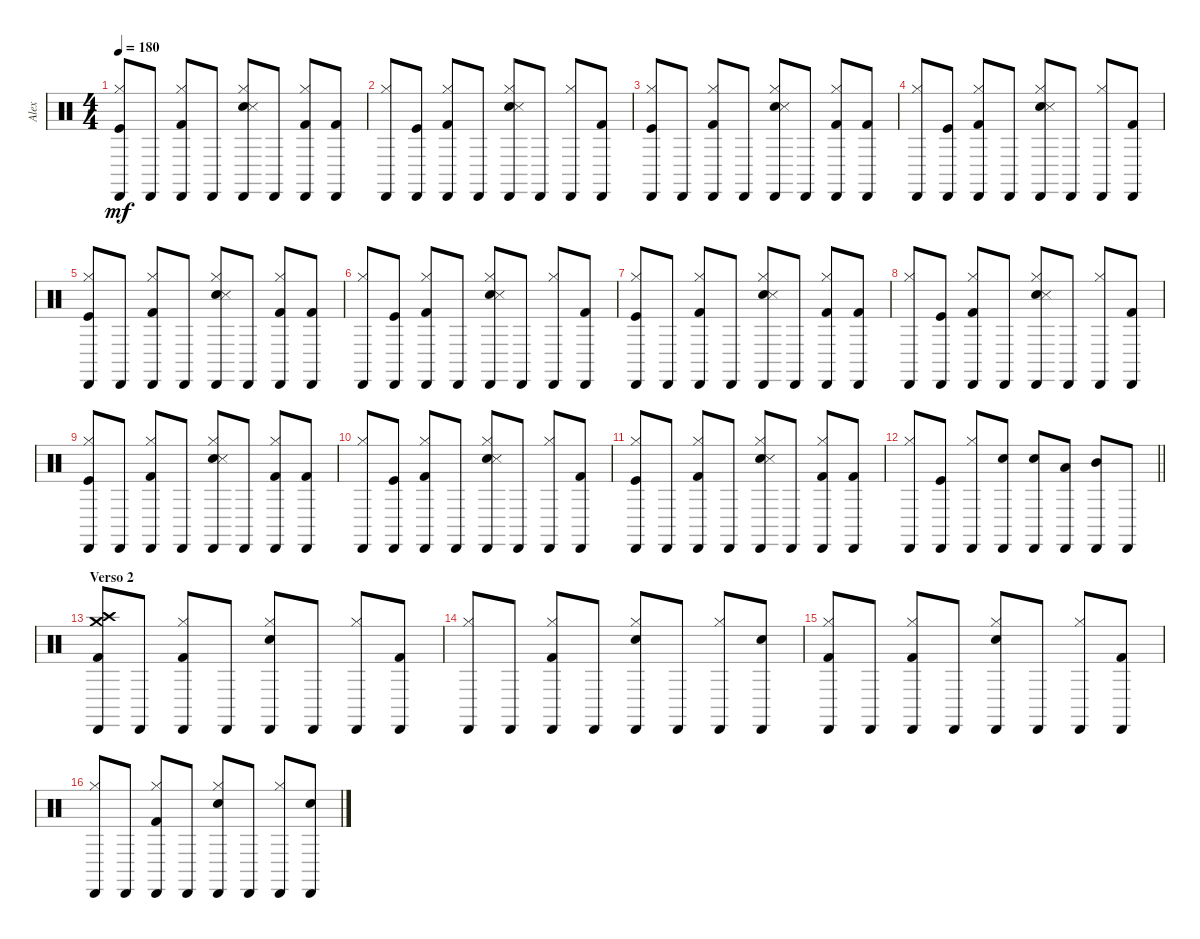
\track ("Alex" "Alex") {instrument percussion}
\staff {score}
\articulation defaults
\ts (4 4)
\tempo 180
\clef neutral
\ks c
("Hi-Hat (closed)" "Kick (hit)" "Cabasa (hit)").8{dy mf} "Cabasa (hit)".8 ("Hi-Hat (closed)" "Kick (hit) 2" "Cabasa (hit)").8 "Cabasa (hit)".8 ("Hi-Hat (closed)" "Hand Clap (hit)" "Snare (side stick) 3" "Cabasa (hit)").8 "Cabasa (hit)".8 ("Hi-Hat (closed)" "Kick (hit) 2" "Cabasa (hit)").8 ("Kick (hit) 2" "Cabasa (hit)").8 |
("Hi-Hat (closed)" "Cabasa (hit)").8 ("Kick (hit)" "Cabasa (hit)").8 ("Hi-Hat (closed)" "Kick (hit) 2" "Cabasa (hit)").8 "Cabasa (hit)".8 ("Hi-Hat (closed)" "Hand Clap (hit)" "Snare (side stick) 3" "Cabasa (hit)").8 "Cabasa (hit)".8 ("Hi-Hat (closed)" "Cabasa (hit)").8 ("Kick (hit) 2" "Cabasa (hit)").8 |
("Hi-Hat (closed)" "Kick (hit)" "Cabasa (hit)").8 "Cabasa (hit)".8 ("Hi-Hat (closed)" "Kick (hit) 2" "Cabasa (hit)").8 "Cabasa (hit)".8 ("Hi-Hat (closed)" "Hand Clap (hit)" "Snare (side stick) 3" "Cabasa (hit)").8 "Cabasa (hit)".8 ("Hi-Hat (closed)" "Kick (hit) 2" "Cabasa (hit)").8 ("Kick (hit) 2" "Cabasa (hit)").8 |
("Hi-Hat (closed)" "Cabasa (hit)").8 ("Kick (hit)" "Cabasa (hit)").8 ("Hi-Hat (closed)" "Kick (hit) 2" "Cabasa (hit)").8 "Cabasa (hit)".8 ("Hi-Hat (closed)" "Hand Clap (hit)" "Snare (side stick) 3" "Cabasa (hit)").8 "Cabasa (hit)".8 ("Hi-Hat (closed)" "Cabasa (hit)").8 ("Kick (hit) 2" "Cabasa (hit)").8 |
("Hi-Hat (closed)" "Kick (hit)" "Cabasa (hit)").8 "Cabasa (hit)".8 ("Hi-Hat (closed)" "Kick (hit) 2" "Cabasa (hit)").8 "Cabasa (hit)".8 ("Hi-Hat (closed)" "Hand Clap (hit)" "Snare (side stick) 3" "Cabasa (hit)").8 "Cabasa (hit)".8 ("Hi-Hat (closed)" "Kick (hit) 2" "Cabasa (hit)").8 ("Kick (hit) 2" "Cabasa (hit)").8 |
("Hi-Hat (closed)" "Cabasa (hit)").8 ("Kick (hit)" "Cabasa (hit)").8 ("Hi-Hat (closed)" "Kick (hit) 2" "Cabasa (hit)").8 "Cabasa (hit)".8 ("Hi-Hat (closed)" "Hand Clap (hit)" "Snare (side stick) 3" "Cabasa (hit)").8 "Cabasa (hit)".8 ("Hi-Hat (closed)" "Cabasa (hit)").8 ("Kick (hit) 2" "Cabasa (hit)").8 |
("Hi-Hat (closed)" "Kick (hit)" "Cabasa (hit)").8 "Cabasa (hit)".8 ("Hi-Hat (closed)" "Kick (hit) 2" "Cabasa (hit)").8 "Cabasa (hit)".8 ("Hi-Hat (closed)" "Hand Clap (hit)" "Snare (side stick) 3" "Cabasa (hit)").8 "Cabasa (hit)".8 ("Hi-Hat (closed)" "Kick (hit) 2" "Cabasa (hit)").8 ("Kick (hit) 2" "Cabasa (hit)").8 |
("Hi-Hat (closed)" "Cabasa (hit)").8 ("Kick (hit)" "Cabasa (hit)").8 ("Hi-Hat (closed)" "Kick (hit) 2" "Cabasa (hit)").8 "Cabasa (hit)".8 ("Hi-Hat (closed)" "Hand Clap (hit)" "Snare (side stick) 3" "Cabasa (hit)").8 "Cabasa (hit)".8 ("Hi-Hat (closed)" "Cabasa (hit)").8 ("Kick (hit) 2" "Cabasa (hit)").8 |
("Hi-Hat (closed)" "Kick (hit)" "Cabasa (hit)").8 "Cabasa (hit)".8 ("Hi-Hat (closed)" "Kick (hit) 2" "Cabasa (hit)").8 "Cabasa (hit)".8 ("Hi-Hat (closed)" "Hand Clap (hit)" "Snare (side stick) 3" "Cabasa (hit)").8 "Cabasa (hit)".8 ("Hi-Hat (closed)" "Kick (hit) 2" "Cabasa (hit)").8 ("Kick (hit) 2" "Cabasa (hit)").8 |
("Hi-Hat (closed)" "Cabasa (hit)").8 ("Kick (hit)" "Cabasa (hit)").8 ("Hi-Hat (closed)" "Kick (hit) 2" "Cabasa (hit)").8 "Cabasa (hit)".8 ("Hi-Hat (closed)" "Hand Clap (hit)" "Snare (side stick) 3" "Cabasa (hit)").8 "Cabasa (hit)".8 ("Hi-Hat (closed)" "Cabasa (hit)").8 ("Kick (hit) 2" "Cabasa (hit)").8 |
("Hi-Hat (closed)" "Kick (hit)" "Cabasa (hit)").8 "Cabasa (hit)".8 ("Hi-Hat (closed)" "Kick (hit) 2" "Cabasa (hit)").8 "Cabasa (hit)".8 ("Hi-Hat (closed)" "Hand Clap (hit)" "Snare (side stick) 3" "Cabasa (hit)").8 "Cabasa (hit)".8 ("Hi-Hat (closed)" "Kick (hit) 2" "Cabasa (hit)").8 ("Kick (hit) 2" "Cabasa (hit)").8 |
\barLineRight lightlight
("Hi-Hat (closed)" "Cabasa (hit)").8 ("Kick (hit)" "Cabasa (hit)").8 ("Hi-Hat (closed)" "Cabasa (hit)").8 ("Snare (hit) 2" "Cabasa (hit)").8 ("Snare (hit) 2" "Cabasa (hit)").8 ("Low Tom (hit)" "Cabasa (hit)").8 ("Mid Tom (hit)" "Cabasa (hit)").8 "Cabasa (hit)".8 |
\section ("" "Verso 2")
("Crash medium (hit)" "Crash high (hit)" "Kick (hit) 2" "Cabasa (hit)").8 "Cabasa (hit)".8 ("Hi-Hat (closed)" "Kick (hit) 2" "Cabasa (hit)").8 "Cabasa (hit)".8 ("Hi-Hat (closed)" "Snare (hit) 2" "Cabasa (hit)").8 "Cabasa (hit)".8 ("Hi-Hat (closed)" "Cabasa (hit)").8 ("Kick (hit) 2" "Cabasa (hit)").8 |
("Hi-Hat (closed)" "Cabasa (hit)").8 "Cabasa (hit)".8 ("Hi-Hat (closed)" "Kick (hit) 2" "Cabasa (hit)").8 "Cabasa (hit)".8 ("Hi-Hat (closed)" "Snare (hit) 2" "Cabasa (hit)").8 "Cabasa (hit)".8 ("Hi-Hat (closed)" "Cabasa (hit)").8 ("Snare (hit) 2" "Cabasa (hit)").8 |
("Hi-Hat (closed)" "Kick (hit) 2" "Cabasa (hit)").8 "Cabasa (hit)".8 ("Hi-Hat (closed)" "Kick (hit) 2" "Cabasa (hit)").8 "Cabasa (hit)".8 ("Hi-Hat (closed)" "Snare (hit) 2" "Cabasa (hit)").8 "Cabasa (hit)".8 ("Hi-Hat (closed)" "Cabasa (hit)").8 ("Kick (hit) 2" "Cabasa (hit)").8 |
("Hi-Hat (closed)" "Cabasa (hit)").8 "Cabasa (hit)".8 ("Hi-Hat (closed)" "Kick (hit) 2" "Cabasa (hit)").8 "Cabasa (hit)".8 ("Hi-Hat (closed)" "Snare (hit) 2" "Cabasa (hit)").8 "Cabasa (hit)".8 ("Hi-Hat (closed)" "Cabasa (hit)").8 ("Snare (hit) 2" "Cabasa (hit)").8
